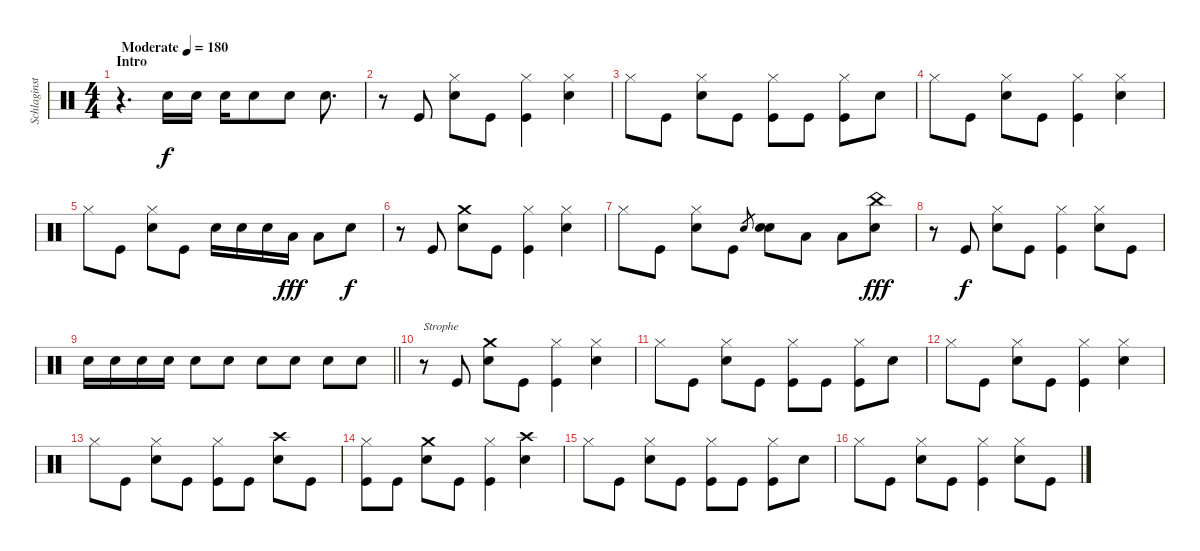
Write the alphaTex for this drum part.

\track ("Schlaginstrumente - Auswahl" "Schlaginst") {instrument percussion}
\staff {score}
\articulation defaults
\ts (4 4)
\section ("" "Intro")
\tempo (180 "Moderate")
\clef neutral
\ks c
r.4{d dy f} "Snare (hit) 2".16 "Snare (hit) 2".16 "Snare (hit) 2".16 "Snare (hit) 2".8 "Snare (hit) 2".8 "Snare (hit) 2".8{d} |
r.8 "Kick (hit)".8 ("Hi-Hat (closed)" "Snare (hit) 2").8 "Kick (hit)".8 ("Hi-Hat (closed)" "Kick (hit)").4 ("Hi-Hat (closed)" "Snare (hit) 2").4 |
"Hi-Hat (closed)".8 "Kick (hit)".8 ("Hi-Hat (closed)" "Snare (hit) 2").8 "Kick (hit)".8 ("Hi-Hat (closed)" "Kick (hit)").8 "Kick (hit)".8 ("Kick (hit)" "Hi-Hat (closed)").8 "Snare (hit) 2".8 |
"Hi-Hat (closed)".8 "Kick (hit)".8 ("Hi-Hat (closed)" "Snare (hit) 2").8 "Kick (hit)".8 ("Hi-Hat (closed)" "Kick (hit)").4 ("Hi-Hat (closed)" "Snare (hit) 2").4 |
"Hi-Hat (closed)".8 "Kick (hit)".8 ("Hi-Hat (closed)" "Snare (hit) 2").8 "Kick (hit)".8 "Snare (hit) 2".16 "Snare (hit) 2".16 "Snare (hit) 2".16 "Low Tom (hit)".16{dy fff} "Low Tom (hit)".8 "Snare (hit) 2".8{dy f} |
r.8 "Kick (hit)".8 ("Crash medium (hit)" "Snare (hit) 2").8 "Kick (hit)".8 ("Hi-Hat (closed)" "Kick (hit)").4 ("Hi-Hat (closed)" "Snare (hit) 2").4 |
"Hi-Hat (closed)".8 "Kick (hit)".8 ("Hi-Hat (closed)" "Snare (hit) 2").8 "Kick (hit)".8 "Electric Snare (hit)".8{gr} ("Snare (hit) 2" "Electric Snare (hit)").8 "Low Floor Tom (hit)".8 "Low Floor Tom (hit)".8 ("Snare (hit) 2" "China (hit)").8{dy fff} |
r.8 "Kick (hit)".8{dy f} ("Hi-Hat (closed)" "Snare (hit) 2").8 "Kick (hit)".8 ("Hi-Hat (closed)" "Kick (hit)").4 ("Hi-Hat (closed)" "Snare (hit) 2").8 "Kick (hit)".8 |
\barLineRight lightlight "Snare (hit) 2".16 "Snare (hit) 2".16 "Snare (hit) 2".16 "Snare (hit) 2".16 "Snare (hit) 2".8 "Snare (hit) 2".8 "Snare (hit) 2".8 "Snare (hit) 2".8 "Snare (hit) 2".8 "Snare (hit) 2".8
|
r.8{txt "Strophe"} "Kick (hit)".8 ("Crash medium (hit)" "Snare (hit) 2").8 "Kick (hit)".8 ("Hi-Hat (closed)" "Kick (hit)").4 ("Hi-Hat (closed)" "Snare (hit) 2").4 |
"Hi-Hat (closed)".8 "Kick (hit)".8 ("Hi-Hat (closed)" "Snare (hit) 2").8 "Kick (hit)".8 ("Hi-Hat (closed)" "Kick (hit)").8 "Kick (hit)".8 ("Kick (hit)" "Hi-Hat (closed)").8 "Snare (hit) 2".8 |
"Hi-Hat (closed)".8 "Kick (hit)".8 ("Hi-Hat (closed)" "Snare (hit) 2").8 "Kick (hit)".8 ("Hi-Hat (closed)" "Kick (hit)").4 ("Hi-Hat (closed)" "Snare (hit) 2").4 |
"Hi-Hat (closed)".8 "Kick (hit)".8 ("Hi-Hat (closed)" "Snare (hit) 2").8 "Kick (hit)".8 ("Hi-Hat (closed)" "Kick (hit)").8 "Kick (hit)".8 ("Snare (hit) 2" "Crash high (hit)").8 "Kick (hit)".8 |
("Hi-Hat (closed)" "Kick (hit)").8 "Kick (hit)".8 ("Crash medium (hit)" "Snare (hit) 2").8 "Kick (hit)".8 ("Hi-Hat (closed)" "Kick (hit)").4 ("Snare (hit) 2" "Crash high (hit)").4 |
"Hi-Hat (closed)".8 "Kick (hit)".8 ("Hi-Hat (closed)" "Snare (hit) 2").8 "Kick (hit)".8 ("Hi-Hat (closed)" "Kick (hit)").8 "Kick (hit)".8 ("Kick (hit)" "Hi-Hat (closed)").8 "Snare (hit) 2".8 |
"Hi-Hat (closed)".8 "Kick (hit)".8 ("Hi-Hat (closed)" "Snare (hit) 2").8 "Kick (hit)".8 ("Hi-Hat (closed)" "Kick (hit)").4 ("Hi-Hat (closed)" "Snare (hit) 2").8 "Kick (hit)".8
